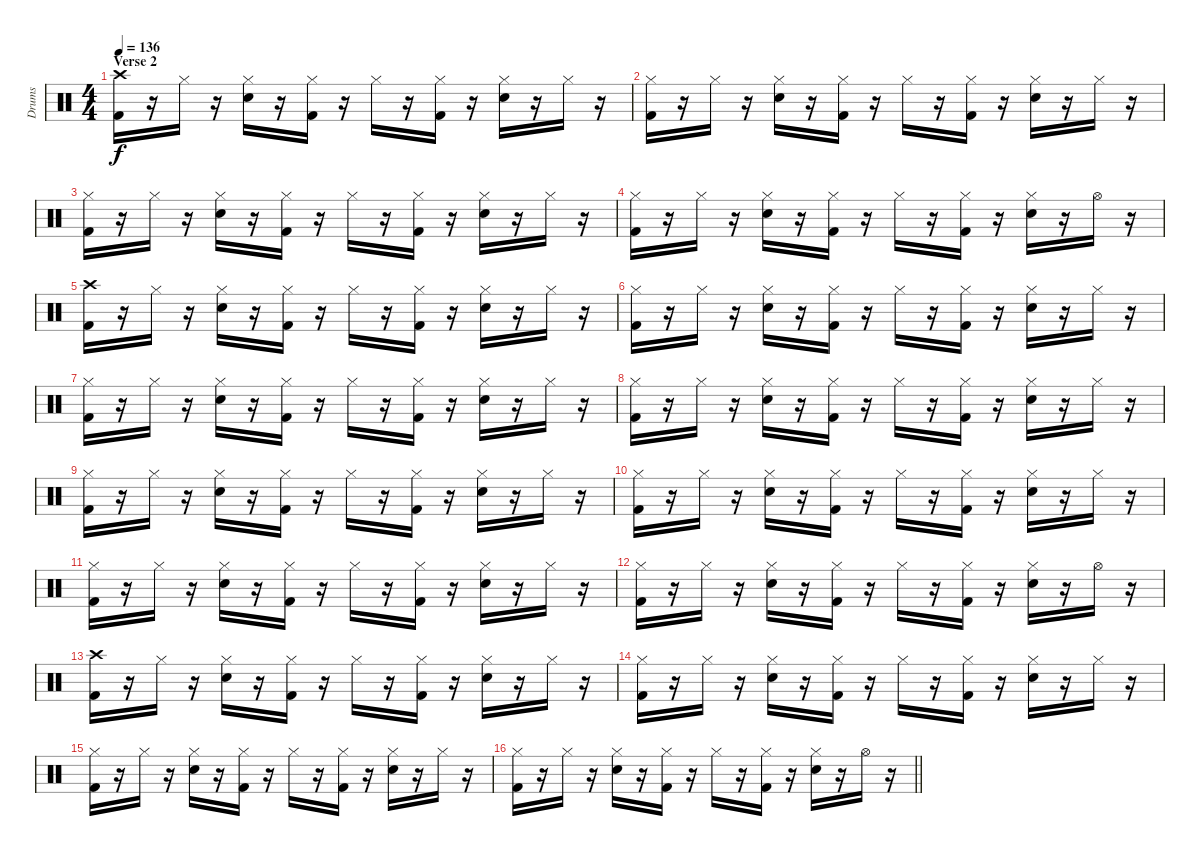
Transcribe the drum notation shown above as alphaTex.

\track ("Drums" "Drums") {instrument percussion}
\staff {score}
\articulation defaults
\ts (4 4)
\section ("" "Verse 2")
\tempo 136
\clef neutral
\ks c
("Kick (hit) 2" "Crash high (hit)").16{dy f} r.16 "Hi-Hat (closed)".16 r.16 ("Electric Snare (hit)" "Hi-Hat (closed)").16 r.16 ("Kick (hit) 2" "Hi-Hat (closed)").16 r.16 "Hi-Hat (closed)".16 r.16 ("Kick (hit) 2" "Hi-Hat (closed)").16 r.16 ("Electric Snare (hit)" "Hi-Hat (closed)").16 r.16 "Hi-Hat (closed)".16 r.16 |
("Kick (hit) 2" "Hi-Hat (closed)").16 r.16 "Hi-Hat (closed)".16 r.16 ("Electric Snare (hit)" "Hi-Hat (closed)").16 r.16 ("Kick (hit) 2" "Hi-Hat (closed)").16 r.16 "Hi-Hat (closed)".16 r.16 ("Kick (hit) 2" "Hi-Hat (closed)").16 r.16 ("Electric Snare (hit)" "Hi-Hat (closed)").16 r.16 "Hi-Hat (closed)".16 r.16 |
("Kick (hit) 2" "Hi-Hat (closed)").16 r.16 "Hi-Hat (closed)".16 r.16 ("Electric Snare (hit)" "Hi-Hat (closed)").16 r.16 ("Kick (hit) 2" "Hi-Hat (closed)").16 r.16 "Hi-Hat (closed)".16 r.16 ("Kick (hit) 2" "Hi-Hat (closed)").16 r.16 ("Electric Snare (hit)" "Hi-Hat (closed)").16 r.16 "Hi-Hat (closed)".16 r.16 |
("Kick (hit) 2" "Hi-Hat (closed)").16 r.16 "Hi-Hat (closed)".16 r.16 ("Electric Snare (hit)" "Hi-Hat (closed)").16 r.16 ("Kick (hit) 2" "Hi-Hat (closed)").16 r.16 "Hi-Hat (closed)".16 r.16 ("Kick (hit) 2" "Hi-Hat (closed)").16 r.16 ("Electric Snare (hit)" "Hi-Hat (closed)").16 r.16 "Hi-Hat (open)".16 r.16 |
("Kick (hit) 2" "Crash high (hit)").16 r.16 "Hi-Hat (closed)".16 r.16 ("Electric Snare (hit)" "Hi-Hat (closed)").16 r.16 ("Kick (hit) 2" "Hi-Hat (closed)").16 r.16 "Hi-Hat (closed)".16 r.16 ("Kick (hit) 2" "Hi-Hat (closed)").16 r.16 ("Electric Snare (hit)" "Hi-Hat (closed)").16 r.16 "Hi-Hat (closed)".16 r.16 |
("Kick (hit) 2" "Hi-Hat (closed)").16 r.16 "Hi-Hat (closed)".16 r.16 ("Electric Snare (hit)" "Hi-Hat (closed)").16 r.16 ("Kick (hit) 2" "Hi-Hat (closed)").16 r.16 "Hi-Hat (closed)".16 r.16 ("Kick (hit) 2" "Hi-Hat (closed)").16 r.16 ("Electric Snare (hit)" "Hi-Hat (closed)").16 r.16 "Hi-Hat (closed)".16 r.16 |
("Kick (hit) 2" "Hi-Hat (closed)").16 r.16 "Hi-Hat (closed)".16 r.16 ("Electric Snare (hit)" "Hi-Hat (closed)").16 r.16 ("Kick (hit) 2" "Hi-Hat (closed)").16 r.16 "Hi-Hat (closed)".16 r.16 ("Kick (hit) 2" "Hi-Hat (closed)").16 r.16 ("Electric Snare (hit)" "Hi-Hat (closed)").16 r.16 "Hi-Hat (closed)".16 r.16 |
("Kick (hit) 2" "Hi-Hat (closed)").16 r.16 "Hi-Hat (closed)".16 r.16 ("Electric Snare (hit)" "Hi-Hat (closed)").16 r.16 ("Kick (hit) 2" "Hi-Hat (closed)").16 r.16 "Hi-Hat (closed)".16 r.16 ("Kick (hit) 2" "Hi-Hat (closed)").16 r.16 ("Electric Snare (hit)" "Hi-Hat (closed)").16 r.16 "Hi-Hat (closed)".16 r.16 |
("Kick (hit) 2" "Hi-Hat (closed)").16 r.16 "Hi-Hat (closed)".16 r.16 ("Electric Snare (hit)" "Hi-Hat (closed)").16 r.16 ("Kick (hit) 2" "Hi-Hat (closed)").16 r.16 "Hi-Hat (closed)".16 r.16 ("Kick (hit) 2" "Hi-Hat (closed)").16 r.16 ("Electric Snare (hit)" "Hi-Hat (closed)").16 r.16 "Hi-Hat (closed)".16 r.16 |
("Kick (hit) 2" "Hi-Hat (closed)").16 r.16 "Hi-Hat (closed)".16 r.16 ("Electric Snare (hit)" "Hi-Hat (closed)").16 r.16 ("Kick (hit) 2" "Hi-Hat (closed)").16 r.16 "Hi-Hat (closed)".16 r.16 ("Kick (hit) 2" "Hi-Hat (closed)").16 r.16 ("Electric Snare (hit)" "Hi-Hat (closed)").16 r.16 "Hi-Hat (closed)".16 r.16 |
("Kick (hit) 2" "Hi-Hat (closed)").16 r.16 "Hi-Hat (closed)".16 r.16 ("Electric Snare (hit)" "Hi-Hat (closed)").16 r.16 ("Kick (hit) 2" "Hi-Hat (closed)").16 r.16 "Hi-Hat (closed)".16 r.16 ("Kick (hit) 2" "Hi-Hat (closed)").16 r.16 ("Electric Snare (hit)" "Hi-Hat (closed)").16 r.16 "Hi-Hat (closed)".16 r.16 |
("Kick (hit) 2" "Hi-Hat (closed)").16 r.16 "Hi-Hat (closed)".16 r.16 ("Electric Snare (hit)" "Hi-Hat (closed)").16 r.16 ("Kick (hit) 2" "Hi-Hat (closed)").16 r.16 "Hi-Hat (closed)".16 r.16 ("Kick (hit) 2" "Hi-Hat (closed)").16 r.16 ("Electric Snare (hit)" "Hi-Hat (closed)").16 r.16 "Hi-Hat (open)".16 r.16 |
("Kick (hit) 2" "Crash high (hit)").16 r.16 "Hi-Hat (closed)".16 r.16 ("Electric Snare (hit)" "Hi-Hat (closed)").16 r.16 ("Kick (hit) 2" "Hi-Hat (closed)").16 r.16 "Hi-Hat (closed)".16 r.16 ("Kick (hit) 2" "Hi-Hat (closed)").16 r.16 ("Electric Snare (hit)" "Hi-Hat (closed)").16 r.16 "Hi-Hat (closed)".16 r.16 |
("Kick (hit) 2" "Hi-Hat (closed)").16 r.16 "Hi-Hat (closed)".16 r.16 ("Electric Snare (hit)" "Hi-Hat (closed)").16 r.16 ("Kick (hit) 2" "Hi-Hat (closed)").16 r.16 "Hi-Hat (closed)".16 r.16 ("Kick (hit) 2" "Hi-Hat (closed)").16 r.16 ("Electric Snare (hit)" "Hi-Hat (closed)").16 r.16 "Hi-Hat (closed)".16 r.16 |
("Kick (hit) 2" "Hi-Hat (closed)").16 r.16 "Hi-Hat (closed)".16 r.16 ("Electric Snare (hit)" "Hi-Hat (closed)").16 r.16 ("Kick (hit) 2" "Hi-Hat (closed)").16 r.16 "Hi-Hat (closed)".16 r.16 ("Kick (hit) 2" "Hi-Hat (closed)").16 r.16 ("Electric Snare (hit)" "Hi-Hat (closed)").16 r.16 "Hi-Hat (closed)".16 r.16 |
\barLineRight lightlight
("Kick (hit) 2" "Hi-Hat (closed)").16 r.16 "Hi-Hat (closed)".16 r.16 ("Electric Snare (hit)" "Hi-Hat (closed)").16 r.16 ("Kick (hit) 2" "Hi-Hat (closed)").16 r.16 "Hi-Hat (closed)".16 r.16 ("Kick (hit) 2" "Hi-Hat (closed)").16 r.16 ("Electric Snare (hit)" "Hi-Hat (closed)").16 r.16 "Hi-Hat (open)".16 r.16
